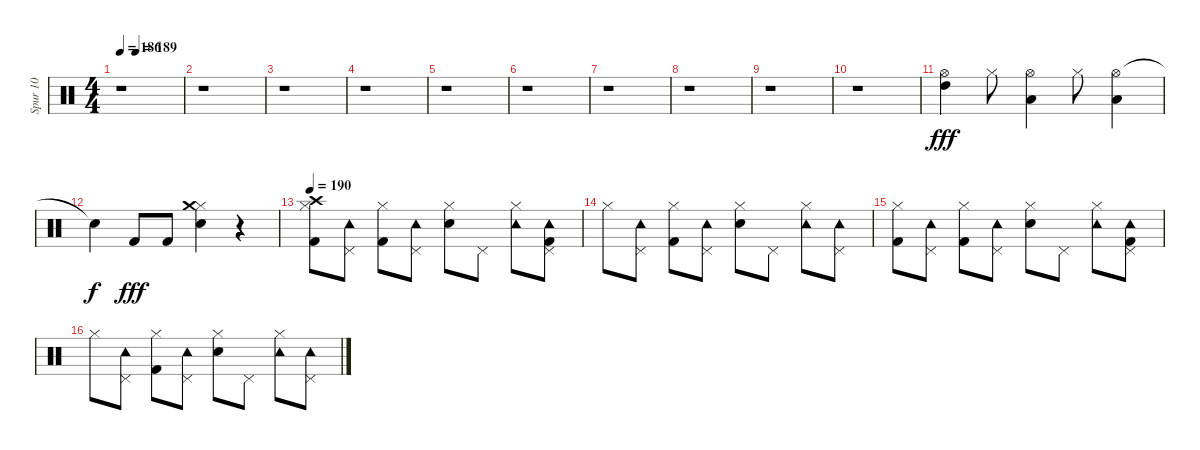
\track ("Spur 10" "Spur 10") {instrument percussion}
\staff {score}
\articulation defaults
\ts (4 4)
\tempo 186
\tempo (189 0.25)
\clef neutral
\ks c
r.1{dy fff} |
r.1 |
r.1 |
r.1 |
r.1 |
r.1 |
r.1 |
r.1 |
r.1 |
r.1 |
("High Tom (hit)" "Hi-Hat (open)").4 "Hi-Hat (closed)".8 ("Low Tom (hit)" "Hi-Hat (open)").4 "Hi-Hat (closed)".8 ("Hi-Hat (open)" "Low Floor Tom (hit)").4 |
"Snare (hit)"{t}.4{dy f} "Kick (hit) 2".8{dy fff} "Kick (hit) 2".8 ("Electric Snare (hit)" "Hi-Hat (closed)" "Crash medium (hit)").4 r.4 |
\tempo 190
("Crash high (hit)" "Kick (hit) 2" "Hi-Hat (closed)").8 ("Tambourine (hit)" "Pedal Hi-Hat (hit)").8 ("Hi-Hat (closed)" "Kick (hit) 2").8 ("Tambourine (hit)" "Pedal Hi-Hat (hit)").8 ("Hi-Hat (closed)" "Electric Snare (hit)").8 "Pedal Hi-Hat (hit)".8 ("Tambourine (hit)" "Hi-Hat (closed)").8 ("Tambourine (hit)" "Pedal Hi-Hat (hit)" "Kick (hit) 2").8 |
"Hi-Hat (closed)".8 ("Tambourine (hit)" "Pedal Hi-Hat (hit)").8 ("Hi-Hat (closed)" "Kick (hit) 2").8 ("Tambourine (hit)" "Pedal Hi-Hat (hit)").8 ("Hi-Hat (closed)" "Electric Snare (hit)").8 "Pedal Hi-Hat (hit)".8 ("Tambourine (hit)" "Hi-Hat (closed)").8 ("Tambourine (hit)" "Pedal Hi-Hat (hit)").8 |
("Hi-Hat (closed)" "Kick (hit) 2").8 ("Tambourine (hit)" "Pedal Hi-Hat (hit)").8 ("Hi-Hat (closed)" "Kick (hit) 2").8 ("Tambourine (hit)" "Pedal Hi-Hat (hit)").8 ("Hi-Hat (closed)" "Electric Snare (hit)").8 "Pedal Hi-Hat (hit)".8 ("Tambourine (hit)" "Hi-Hat (closed)").8 ("Tambourine (hit)" "Pedal Hi-Hat (hit)" "Kick (hit) 2").8 |
"Hi-Hat (closed)".8 ("Tambourine (hit)" "Pedal Hi-Hat (hit)").8 ("Kick (hit) 2" "Hi-Hat (closed)").8 ("Tambourine (hit)" "Pedal Hi-Hat (hit)").8 ("Hi-Hat (closed)" "Electric Snare (hit)").8 "Pedal Hi-Hat (hit)".8 ("Tambourine (hit)" "Hi-Hat (closed)").8 ("Tambourine (hit)" "Pedal Hi-Hat (hit)").8
